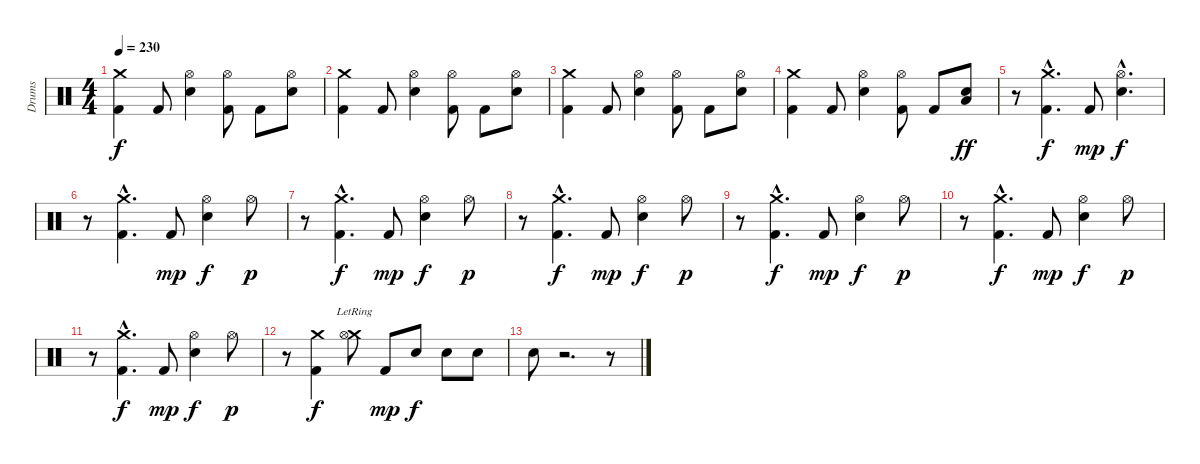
\track ("Drums" "Drums") {instrument percussion}
\staff {score}
\articulation defaults
\ts (4 4)
\tempo 230
\clef neutral
\ks c
("Crash medium (hit)" "Kick (hit) 2").4{dy f} "Kick (hit) 2".8 ("Hi-Hat (open)" "Electric Snare (hit)").4 ("Hi-Hat (open)" "Kick (hit) 2").8 "Kick (hit) 2".8 ("Hi-Hat (open)" "Electric Snare (hit)").8 |
("Crash medium (hit)" "Kick (hit) 2").4 "Kick (hit) 2".8 ("Hi-Hat (open)" "Electric Snare (hit)").4 ("Hi-Hat (open)" "Kick (hit) 2").8 "Kick (hit) 2".8 ("Hi-Hat (open)" "Electric Snare (hit)").8 |
("Crash medium (hit)" "Kick (hit) 2").4 "Kick (hit) 2".8 ("Hi-Hat (open)" "Electric Snare (hit)").4 ("Hi-Hat (open)" "Kick (hit) 2").8 "Kick (hit) 2".8 ("Hi-Hat (open)" "Electric Snare (hit)").8 |
("Crash medium (hit)" "Kick (hit) 2").4 "Kick (hit) 2".8 ("Hi-Hat (open)" "Electric Snare (hit)").4 ("Hi-Hat (open)" "Kick (hit) 2").8 "Kick (hit) 2".8 ("Low Floor Tom (hit)" "Electric Snare (hit)").8{dy ff} |
r.8 ("Crash medium (hit)"{hac} "Kick (hit) 2"{hac}).4{d dy f} "Kick (hit) 2".8{dy mp} ("Hi-Hat (open)"{hac} "Electric Snare (hit)"{hac}).4{d dy f} |
r.8 ("Crash medium (hit)"{hac} "Kick (hit) 2"{hac}).4{d} "Kick (hit) 2".8{dy mp} ("Hi-Hat (open)" "Electric Snare (hit)").4{dy f} "Hi-Hat (open)".8{dy p} |
r.8 ("Crash medium (hit)"{hac} "Kick (hit) 2"{hac}).4{d dy f} "Kick (hit) 2".8{dy mp} ("Hi-Hat (open)" "Electric Snare (hit)").4{dy f} "Hi-Hat (open)".8{dy p} |
r.8 ("Crash medium (hit)"{hac} "Kick (hit) 2"{hac}).4{d dy f} "Kick (hit) 2".8{dy mp} ("Hi-Hat (open)" "Electric Snare (hit)").4{dy f} "Hi-Hat (open)".8{dy p} |
r.8 ("Crash medium (hit)"{hac} "Kick (hit) 2"{hac}).4{d dy f} "Kick (hit) 2".8{dy mp} ("Hi-Hat (open)" "Electric Snare (hit)").4{dy f} "Hi-Hat (open)".8{dy p} |
r.8 ("Crash medium (hit)"{hac} "Kick (hit) 2"{hac}).4{d dy f} "Kick (hit) 2".8{dy mp} ("Hi-Hat (open)" "Electric Snare (hit)").4{dy f} "Hi-Hat (open)".8{dy p} |
r.8 ("Crash medium (hit)"{hac} "Kick (hit) 2"{hac}).4{d dy f} "Kick (hit) 2".8{dy mp} ("Hi-Hat (open)" "Electric Snare (hit)").4{dy f} "Hi-Hat (open)".8{dy p} |
r.8 ("Crash medium (hit)" "Kick (hit) 2").4{dy f} ("Crash medium (hit)"{lr} "Hi-Hat (open)"{lr}).8 "Kick (hit) 2".8{dy mp} "Electric Snare (hit)".8{dy f} "Electric Snare (hit)".8 "Electric Snare (hit)".8 |
"Electric Snare (hit)".8 r.2{d} r.8
